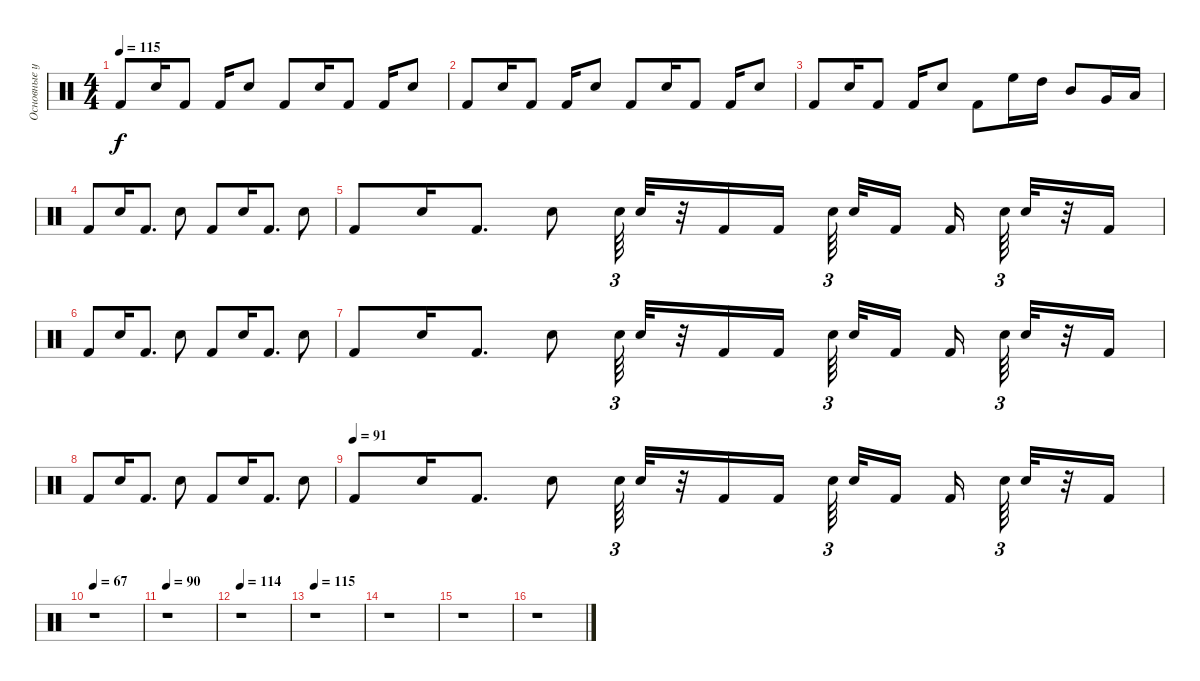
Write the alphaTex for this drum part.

\track ("Основные ударные" "Основные у") {instrument percussion}
\staff {score}
\articulation defaults
\ts (4 4)
\tempo 115
\clef neutral
\ks c "Kick (hit) 2".8{dy f} "Electric Snare (hit)".16 "Kick (hit) 2".8 "Kick (hit) 2".16 "Electric Snare (hit)".8 "Kick (hit) 2".8 "Electric Snare (hit)".16 "Kick (hit) 2".8 "Kick (hit) 2".16 "Electric Snare (hit)".8
|
"Kick (hit) 2".8 "Electric Snare (hit)".16 "Kick (hit) 2".8 "Kick (hit) 2".16 "Electric Snare (hit)".8 "Kick (hit) 2".8 "Electric Snare (hit)".16 "Kick (hit) 2".8 "Kick (hit) 2".16 "Electric Snare (hit)".8 |
"Kick (hit) 2".8 "Electric Snare (hit)".16 "Kick (hit) 2".8 "Kick (hit) 2".16 "Electric Snare (hit)".8 "Kick (hit) 2".8 "High Floor Tom (hit)".16 "High Tom (hit)".16 "Mid Tom (hit)".8 "Very Low Tom (hit)".16 "Low Floor Tom (hit)".16 |
"Kick (hit) 2".8 "Electric Snare (hit)".16 "Kick (hit) 2".8{d} "Electric Snare (hit)".8 "Kick (hit) 2".8 "Electric Snare (hit)".16 "Kick (hit) 2".8{d} "Electric Snare (hit)".8 |
"Kick (hit) 2".8 "Electric Snare (hit)".16 "Kick (hit) 2".8{d} "Electric Snare (hit)".8 "Electric Snare (hit)".64{tu (3 2)} "Electric Snare (hit)".32 r.32 "Kick (hit) 2".16 "Kick (hit) 2".16{beam splitsecondary} "Electric Snare (hit)".64{tu (3 2) beam splitsecondary} "Electric Snare (hit)".32 "Kick (hit) 2".16 "Kick (hit) 2".16{beam splitsecondary} "Electric Snare (hit)".64{tu (3 2)} "Electric Snare (hit)".32 r.32 "Kick (hit) 2".16 |
"Kick (hit) 2".8 "Electric Snare (hit)".16 "Kick (hit) 2".8{d} "Electric Snare (hit)".8 "Kick (hit) 2".8 "Electric Snare (hit)".16 "Kick (hit) 2".8{d} "Electric Snare (hit)".8 |
"Kick (hit) 2".8 "Electric Snare (hit)".16 "Kick (hit) 2".8{d} "Electric Snare (hit)".8 "Electric Snare (hit)".64{tu (3 2)} "Electric Snare (hit)".32 r.32 "Kick (hit) 2".16 "Kick (hit) 2".16{beam splitsecondary} "Electric Snare (hit)".64{tu (3 2) beam splitsecondary} "Electric Snare (hit)".32 "Kick (hit) 2".16 "Kick (hit) 2".16{beam splitsecondary} "Electric Snare (hit)".64{tu (3 2)} "Electric Snare (hit)".32 r.32 "Kick (hit) 2".16 |
"Kick (hit) 2".8 "Electric Snare (hit)".16 "Kick (hit) 2".8{d} "Electric Snare (hit)".8 "Kick (hit) 2".8 "Electric Snare (hit)".16 "Kick (hit) 2".8{d} "Electric Snare (hit)".8 |
\tempo (91)
"Kick (hit) 2".8 "Electric Snare (hit)".16 "Kick (hit) 2".8{d} "Electric Snare (hit)".8 "Electric Snare (hit)".64{tu (3 2)} "Electric Snare (hit)".32 r.32 "Kick (hit) 2".16 "Kick (hit) 2".16{beam splitsecondary} "Electric Snare (hit)".64{tu (3 2) beam splitsecondary} "Electric Snare (hit)".32 "Kick (hit) 2".16 "Kick (hit) 2".16{beam splitsecondary} "Electric Snare (hit)".64{tu (3 2)} "Electric Snare (hit)".32 r.32 "Kick (hit) 2".16 |
\tempo 67
r.1 |
\tempo 90
r.1 |
\tempo 114
r.1 |
\tempo 115
r.1 |
r.1 |
r.1 |
r.1
